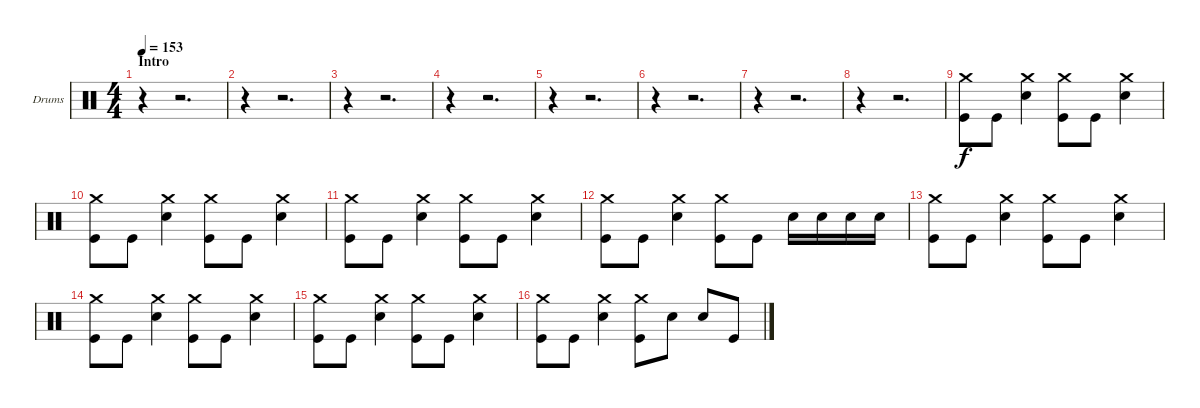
\bracketExtendMode groupsimilarinstruments
\firstSystemTrackNameOrientation horizontal
\otherSystemsTrackNameOrientation horizontal
\track ("Drumkit" "Drums") {instrument percussion}
\staff {score}
\articulation defaults
\ts (4 4)
\section ("" "Intro")
\tempo 153
\clef neutral
\ks c
r.4{dy f} r.2{d} |
r.4 r.2{d} |
r.4 r.2{d} |
r.4 r.2{d} |
r.4 r.2{d} |
r.4 r.2{d} |
r.4 r.2{d} |
r.4 r.2{d} |
("Crash medium (hit)" "Kick (hit)").8 "Kick (hit)".8 ("Crash medium (hit)" "Snare (hit) 2").4 ("Crash medium (hit)" "Kick (hit)").8 "Kick (hit)".8 ("Crash medium (hit)" "Snare (hit) 2").4 |
("Crash medium (hit)" "Kick (hit)").8 "Kick (hit)".8 ("Crash medium (hit)" "Snare (hit) 2").4 ("Crash medium (hit)" "Kick (hit)").8 "Kick (hit)".8 ("Crash medium (hit)" "Snare (hit) 2").4 |
("Crash medium (hit)" "Kick (hit)").8 "Kick (hit)".8 ("Crash medium (hit)" "Snare (hit) 2").4 ("Crash medium (hit)" "Kick (hit)").8 "Kick (hit)".8 ("Crash medium (hit)" "Snare (hit) 2").4 |
("Crash medium (hit)" "Kick (hit)").8 "Kick (hit)".8 ("Crash medium (hit)" "Snare (hit) 2").4 ("Crash medium (hit)" "Kick (hit)").8 "Kick (hit)".8 "Snare (hit) 2".16 "Snare (hit) 2".16 "Snare (hit) 2".16 "Snare (hit) 2".16 |
("Crash medium (hit)" "Kick (hit)").8 "Kick (hit)".8 ("Crash medium (hit)" "Snare (hit) 2").4 ("Crash medium (hit)" "Kick (hit)").8 "Kick (hit)".8 ("Crash medium (hit)" "Snare (hit) 2").4 |
("Crash medium (hit)" "Kick (hit)").8 "Kick (hit)".8 ("Crash medium (hit)" "Snare (hit) 2").4 ("Crash medium (hit)" "Kick (hit)").8 "Kick (hit)".8 ("Crash medium (hit)" "Snare (hit) 2").4 |
("Crash medium (hit)" "Kick (hit)").8 "Kick (hit)".8 ("Crash medium (hit)" "Snare (hit) 2").4 ("Crash medium (hit)" "Kick (hit)").8 "Kick (hit)".8 ("Crash medium (hit)" "Snare (hit) 2").4 |
("Crash medium (hit)" "Kick (hit)").8 "Kick (hit)".8 ("Crash medium (hit)" "Snare (hit) 2").4 ("Crash medium (hit)" "Kick (hit)").8 "Snare (hit) 2".8 "Snare (hit) 2".8 "Kick (hit)".8
